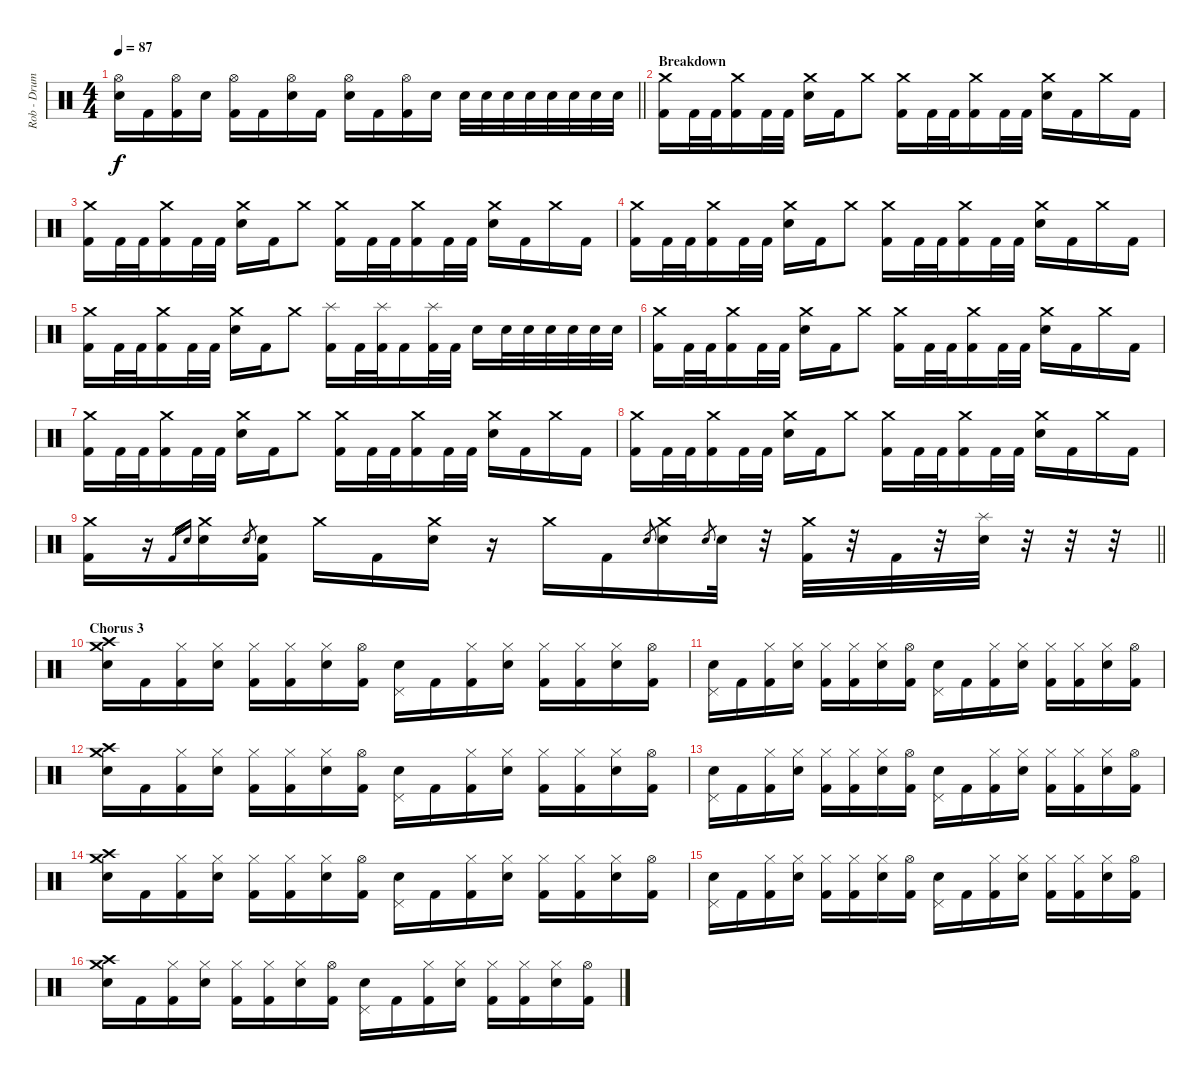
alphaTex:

\track ("Rob - Drums" "Rob - Drum") {instrument percussion}
\staff {score}
\articulation defaults
\ts (4 4)
\tempo 87
\clef neutral
\barLineRight lightlight
\ks c
("Hi-Hat (open)" "Electric Snare (hit)").16{dy f} "Kick (hit) 2".16 ("Hi-Hat (open)" "Kick (hit) 2").16 "Electric Snare (hit)".16 ("Hi-Hat (open)" "Kick (hit) 2").16 "Kick (hit) 2".16 ("Hi-Hat (open)" "Electric Snare (hit)").16 "Kick (hit) 2".16 ("Hi-Hat (open)" "Electric Snare (hit)").16 "Kick (hit) 2".16 ("Hi-Hat (open)" "Kick (hit) 2").16 "Electric Snare (hit)".16 "Electric Snare (hit)".32 "Electric Snare (hit)".32 "Electric Snare (hit)".32 "Electric Snare (hit)".32 "Electric Snare (hit)".32 "Electric Snare (hit)".32 "Electric Snare (hit)".32 "Electric Snare (hit)".32 |
\section ("" "Breakdown")
("Crash medium (hit)" "Kick (hit) 2").16 "Kick (hit) 2".32 "Kick (hit) 2".32 ("Crash medium (hit)" "Kick (hit) 2").16 "Kick (hit) 2".32 "Kick (hit) 2".32 ("Crash medium (hit)" "Electric Snare (hit)").16 "Kick (hit) 2".16 "Crash medium (hit)".8 ("Crash medium (hit)" "Kick (hit) 2").16 "Kick (hit) 2".32 "Kick (hit) 2".32 ("Crash medium (hit)" "Kick (hit) 2").16 "Kick (hit) 2".32 "Kick (hit) 2".32 ("Crash medium (hit)" "Electric Snare (hit)").16 "Kick (hit) 2".16 "Crash medium (hit)".16 "Kick (hit) 2".16 |
("Crash medium (hit)" "Kick (hit) 2").16 "Kick (hit) 2".32 "Kick (hit) 2".32 ("Crash medium (hit)" "Kick (hit) 2").16 "Kick (hit) 2".32 "Kick (hit) 2".32 ("Crash medium (hit)" "Electric Snare (hit)").16 "Kick (hit) 2".16 "Crash medium (hit)".8 ("Crash medium (hit)" "Kick (hit) 2").16 "Kick (hit) 2".32 "Kick (hit) 2".32 ("Crash medium (hit)" "Kick (hit) 2").16 "Kick (hit) 2".32 "Kick (hit) 2".32 ("Crash medium (hit)" "Electric Snare (hit)").16 "Kick (hit) 2".16 "Crash medium (hit)".16 "Kick (hit) 2".16 |
("Crash medium (hit)" "Kick (hit) 2").16 "Kick (hit) 2".32 "Kick (hit) 2".32 ("Crash medium (hit)" "Kick (hit) 2").16 "Kick (hit) 2".32 "Kick (hit) 2".32 ("Crash medium (hit)" "Electric Snare (hit)").16 "Kick (hit) 2".16 "Crash medium (hit)".8 ("Crash medium (hit)" "Kick (hit) 2").16 "Kick (hit) 2".32 "Kick (hit) 2".32 ("Crash medium (hit)" "Kick (hit) 2").16 "Kick (hit) 2".32 "Kick (hit) 2".32 ("Crash medium (hit)" "Electric Snare (hit)").16 "Kick (hit) 2".16 "Crash medium (hit)".16 "Kick (hit) 2".16 |
("Crash medium (hit)" "Kick (hit) 2").16 "Kick (hit) 2".32 "Kick (hit) 2".32 ("Crash medium (hit)" "Kick (hit) 2").16 "Kick (hit) 2".32 "Kick (hit) 2".32 ("Crash medium (hit)" "Electric Snare (hit)").16 "Kick (hit) 2".16 "Crash medium (hit)".8 ("Splash (hit)" "Kick (hit) 2").16 "Kick (hit) 2".32 ("Splash (hit)" "Kick (hit) 2").32 "Kick (hit) 2".16 ("Splash (hit)" "Kick (hit) 2").32 "Kick (hit) 2".32 "Electric Snare (hit)".16 "Electric Snare (hit)".32 "Electric Snare (hit)".32 "Electric Snare (hit)".32 "Electric Snare (hit)".32 "Electric Snare (hit)".32 "Electric Snare (hit)".32 |
("Crash medium (hit)" "Kick (hit) 2").16 "Kick (hit) 2".32 "Kick (hit) 2".32 ("Crash medium (hit)" "Kick (hit) 2").16 "Kick (hit) 2".32 "Kick (hit) 2".32 ("Crash medium (hit)" "Electric Snare (hit)").16 "Kick (hit) 2".16 "Crash medium (hit)".8 ("Crash medium (hit)" "Kick (hit) 2").16 "Kick (hit) 2".32 "Kick (hit) 2".32 ("Crash medium (hit)" "Kick (hit) 2").16 "Kick (hit) 2".32 "Kick (hit) 2".32 ("Crash medium (hit)" "Electric Snare (hit)").16 "Kick (hit) 2".16 "Crash medium (hit)".16 "Kick (hit) 2".16 |
("Crash medium (hit)" "Kick (hit) 2").16 "Kick (hit) 2".32 "Kick (hit) 2".32 ("Crash medium (hit)" "Kick (hit) 2").16 "Kick (hit) 2".32 "Kick (hit) 2".32 ("Crash medium (hit)" "Electric Snare (hit)").16 "Kick (hit) 2".16 "Crash medium (hit)".8 ("Crash medium (hit)" "Kick (hit) 2").16 "Kick (hit) 2".32 "Kick (hit) 2".32 ("Crash medium (hit)" "Kick (hit) 2").16 "Kick (hit) 2".32 "Kick (hit) 2".32 ("Crash medium (hit)" "Electric Snare (hit)").16 "Kick (hit) 2".16 "Crash medium (hit)".16 "Kick (hit) 2".16 |
("Crash medium (hit)" "Kick (hit) 2").16 "Kick (hit) 2".32 "Kick (hit) 2".32 ("Crash medium (hit)" "Kick (hit) 2").16 "Kick (hit) 2".32 "Kick (hit) 2".32 ("Crash medium (hit)" "Electric Snare (hit)").16 "Kick (hit) 2".16 "Crash medium (hit)".8 ("Crash medium (hit)" "Kick (hit) 2").16 "Kick (hit) 2".32 "Kick (hit) 2".32 ("Crash medium (hit)" "Kick (hit) 2").16 "Kick (hit) 2".32 "Kick (hit) 2".32 ("Crash medium (hit)" "Electric Snare (hit)").16 "Kick (hit) 2".16 "Crash medium (hit)".16 "Kick (hit) 2".16 |
\barLineRight lightlight
("Crash medium (hit)" "Kick (hit) 2").16 r.16 "Kick (hit) 2".16{gr} "Electric Snare (hit)".16{gr} ("Crash medium (hit)" "Electric Snare (hit)").16 "Electric Snare (hit)".8{gr} ("Electric Snare (hit)" "Kick (hit) 2").16 "Crash medium (hit)".16 "Kick (hit) 2".16 ("Crash medium (hit)" "Electric Snare (hit)").16 r.16 "Crash medium (hit)".16 "Kick (hit) 2".16 "Electric Snare (hit)".8{gr} ("Crash medium (hit)" "Electric Snare (hit)").16 "Electric Snare (hit)".8{gr} "Electric Snare (hit)".32 r.32 ("Crash medium (hit)" "Kick (hit) 2").32 r.32 "Kick (hit) 2".32 r.32 ("Splash (hit)" "Electric Snare (hit)").32 r.32 r.32 r.32 |
\section ("" "Chorus 3")
("Crash medium (hit)" "Crash high (hit)" "Electric Snare (hit)").16 "Kick (hit) 2".16 ("Hi-Hat (closed)" "Kick (hit) 2").16 ("Hi-Hat (closed)" "Electric Snare (hit)").16 ("Hi-Hat (closed)" "Kick (hit) 2").16 ("Hi-Hat (closed)" "Kick (hit) 2").16 ("Hi-Hat (closed)" "Electric Snare (hit)").16 ("Hi-Hat (open)" "Kick (hit) 2").16 ("Pedal Hi-Hat (hit)" "Electric Snare (hit)").16 "Kick (hit) 2".16 ("Hi-Hat (closed)" "Kick (hit) 2").16 ("Hi-Hat (closed)" "Electric Snare (hit)").16 ("Hi-Hat (closed)" "Kick (hit) 2").16 ("Hi-Hat (closed)" "Kick (hit) 2").16 ("Hi-Hat (closed)" "Electric Snare (hit)").16 ("Hi-Hat (open)" "Kick (hit) 2").16 |
("Pedal Hi-Hat (hit)" "Electric Snare (hit)").16 "Kick (hit) 2".16 ("Hi-Hat (closed)" "Kick (hit) 2").16 ("Hi-Hat (closed)" "Electric Snare (hit)").16 ("Hi-Hat (closed)" "Kick (hit) 2").16 ("Hi-Hat (closed)" "Kick (hit) 2").16 ("Hi-Hat (closed)" "Electric Snare (hit)").16 ("Hi-Hat (open)" "Kick (hit) 2").16 ("Pedal Hi-Hat (hit)" "Electric Snare (hit)").16 "Kick (hit) 2".16 ("Hi-Hat (closed)" "Kick (hit) 2").16 ("Hi-Hat (closed)" "Electric Snare (hit)").16 ("Hi-Hat (closed)" "Kick (hit) 2").16 ("Hi-Hat (closed)" "Kick (hit) 2").16 ("Hi-Hat (closed)" "Electric Snare (hit)").16 ("Hi-Hat (open)" "Kick (hit) 2").16 |
("Crash medium (hit)" "Crash high (hit)" "Electric Snare (hit)").16 "Kick (hit) 2".16 ("Hi-Hat (closed)" "Kick (hit) 2").16 ("Hi-Hat (closed)" "Electric Snare (hit)").16 ("Hi-Hat (closed)" "Kick (hit) 2").16 ("Hi-Hat (closed)" "Kick (hit) 2").16 ("Hi-Hat (closed)" "Electric Snare (hit)").16 ("Hi-Hat (open)" "Kick (hit) 2").16 ("Pedal Hi-Hat (hit)" "Electric Snare (hit)").16 "Kick (hit) 2".16 ("Hi-Hat (closed)" "Kick (hit) 2").16 ("Hi-Hat (closed)" "Electric Snare (hit)").16 ("Hi-Hat (closed)" "Kick (hit) 2").16 ("Hi-Hat (closed)" "Kick (hit) 2").16 ("Hi-Hat (closed)" "Electric Snare (hit)").16 ("Hi-Hat (open)" "Kick (hit) 2").16 |
("Pedal Hi-Hat (hit)" "Electric Snare (hit)").16 "Kick (hit) 2".16 ("Hi-Hat (closed)" "Kick (hit) 2").16 ("Hi-Hat (closed)" "Electric Snare (hit)").16 ("Hi-Hat (closed)" "Kick (hit) 2").16 ("Hi-Hat (closed)" "Kick (hit) 2").16 ("Hi-Hat (closed)" "Electric Snare (hit)").16 ("Hi-Hat (open)" "Kick (hit) 2").16 ("Pedal Hi-Hat (hit)" "Electric Snare (hit)").16 "Kick (hit) 2".16 ("Hi-Hat (closed)" "Kick (hit) 2").16 ("Hi-Hat (closed)" "Electric Snare (hit)").16 ("Hi-Hat (closed)" "Kick (hit) 2").16 ("Hi-Hat (closed)" "Kick (hit) 2").16 ("Hi-Hat (closed)" "Electric Snare (hit)").16 ("Hi-Hat (open)" "Kick (hit) 2").16 |
("Crash medium (hit)" "Crash high (hit)" "Electric Snare (hit)").16 "Kick (hit) 2".16 ("Hi-Hat (closed)" "Kick (hit) 2").16 ("Hi-Hat (closed)" "Electric Snare (hit)").16 ("Hi-Hat (closed)" "Kick (hit) 2").16 ("Hi-Hat (closed)" "Kick (hit) 2").16 ("Hi-Hat (closed)" "Electric Snare (hit)").16 ("Hi-Hat (open)" "Kick (hit) 2").16 ("Pedal Hi-Hat (hit)" "Electric Snare (hit)").16 "Kick (hit) 2".16 ("Hi-Hat (closed)" "Kick (hit) 2").16 ("Hi-Hat (closed)" "Electric Snare (hit)").16 ("Hi-Hat (closed)" "Kick (hit) 2").16 ("Hi-Hat (closed)" "Kick (hit) 2").16 ("Hi-Hat (closed)" "Electric Snare (hit)").16 ("Hi-Hat (open)" "Kick (hit) 2").16 |
("Pedal Hi-Hat (hit)" "Electric Snare (hit)").16 "Kick (hit) 2".16 ("Hi-Hat (closed)" "Kick (hit) 2").16 ("Hi-Hat (closed)" "Electric Snare (hit)").16 ("Hi-Hat (closed)" "Kick (hit) 2").16 ("Hi-Hat (closed)" "Kick (hit) 2").16 ("Hi-Hat (closed)" "Electric Snare (hit)").16 ("Hi-Hat (open)" "Kick (hit) 2").16 ("Pedal Hi-Hat (hit)" "Electric Snare (hit)").16 "Kick (hit) 2".16 ("Hi-Hat (closed)" "Kick (hit) 2").16 ("Hi-Hat (closed)" "Electric Snare (hit)").16 ("Hi-Hat (closed)" "Kick (hit) 2").16 ("Hi-Hat (closed)" "Kick (hit) 2").16 ("Hi-Hat (closed)" "Electric Snare (hit)").16 ("Hi-Hat (open)" "Kick (hit) 2").16 |
("Crash medium (hit)" "Crash high (hit)" "Electric Snare (hit)").16 "Kick (hit) 2".16 ("Hi-Hat (closed)" "Kick (hit) 2").16 ("Hi-Hat (closed)" "Electric Snare (hit)").16 ("Hi-Hat (closed)" "Kick (hit) 2").16 ("Hi-Hat (closed)" "Kick (hit) 2").16 ("Hi-Hat (closed)" "Electric Snare (hit)").16 ("Hi-Hat (open)" "Kick (hit) 2").16 ("Pedal Hi-Hat (hit)" "Electric Snare (hit)").16 "Kick (hit) 2".16 ("Hi-Hat (closed)" "Kick (hit) 2").16 ("Hi-Hat (closed)" "Electric Snare (hit)").16 ("Hi-Hat (closed)" "Kick (hit) 2").16 ("Hi-Hat (closed)" "Kick (hit) 2").16 ("Hi-Hat (closed)" "Electric Snare (hit)").16 ("Hi-Hat (open)" "Kick (hit) 2").16
